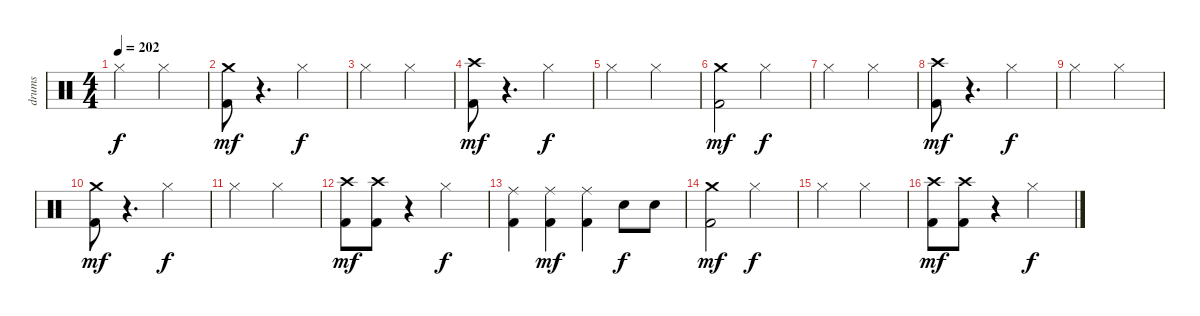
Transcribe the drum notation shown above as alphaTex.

\track ("drums" "drums") {instrument percussion}
\staff {score}
\articulation defaults
\ts (4 4)
\tempo 202
\clef neutral
\ks c "Hi-Hat (closed)".2{dy f} "Hi-Hat (closed)".2
|
("Crash medium (hit)" "Kick (hit) 2").8{dy mf} r.4{d} "Hi-Hat (closed)".2{dy f} |
"Hi-Hat (closed)".2 "Hi-Hat (closed)".2 |
("Crash high (hit)" "Kick (hit) 2").8{dy mf} r.4{d} "Hi-Hat (closed)".2{dy f} |
"Hi-Hat (closed)".2 "Hi-Hat (closed)".2 |
("Crash medium (hit)" "Kick (hit) 2").2{dy mf} "Hi-Hat (closed)".2{dy f} |
"Hi-Hat (closed)".2 "Hi-Hat (closed)".2 |
("Crash high (hit)" "Kick (hit) 2").8{dy mf} r.4{d} "Hi-Hat (closed)".2{dy f} |
"Hi-Hat (closed)".2 "Hi-Hat (closed)".2 |
("Crash medium (hit)" "Kick (hit) 2").8{dy mf} r.4{d} "Hi-Hat (closed)".2{dy f} |
"Hi-Hat (closed)".2 "Hi-Hat (closed)".2 |
("Crash high (hit)" "Kick (hit) 2").8{dy mf} ("Crash high (hit)" "Kick (hit) 2").8 r.4 "Hi-Hat (closed)".2{dy f} |
("Ride (middle)" "Kick (hit) 2").4 ("Ride (middle)" "Kick (hit) 2").4{dy mf} ("Ride (middle)" "Kick (hit) 2").4 "Snare (hit) 2".8{dy f} "Snare (hit) 2".8 |
("Crash medium (hit)" "Kick (hit) 2").2{dy mf} "Hi-Hat (closed)".2{dy f} |
"Hi-Hat (closed)".2 "Hi-Hat (closed)".2 |
("Crash high (hit)" "Kick (hit) 2").8{dy mf} ("Crash high (hit)" "Kick (hit) 2").8 r.4 "Hi-Hat (closed)".2{dy f}
